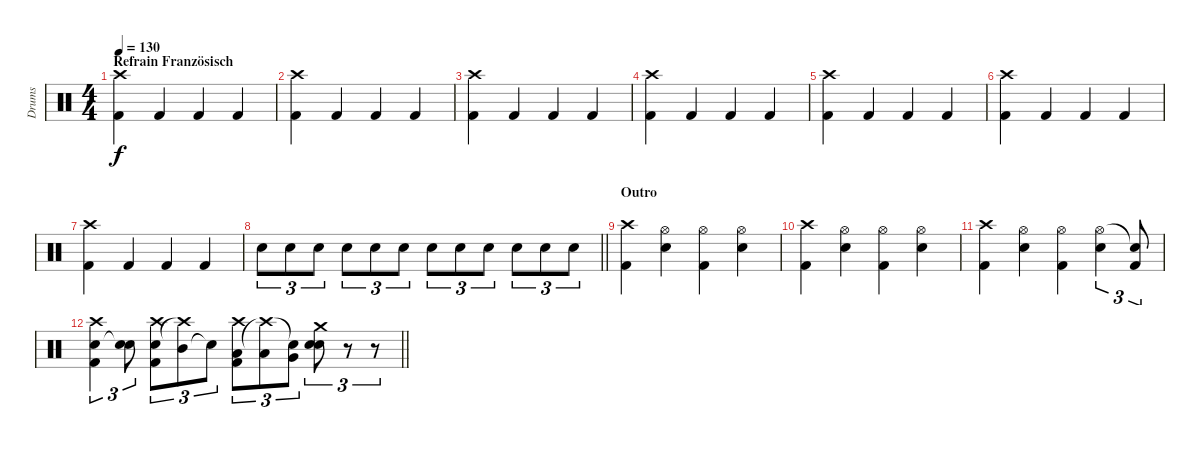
\track ("Drums" "Drums") {instrument percussion}
\staff {score}
\articulation defaults
\ts (4 4)
\section ("" "Refrain Französisch")
\tempo 130
\clef neutral
\ks c
("Crash high (hit)" "Kick (hit) 2").4{dy f} "Kick (hit) 2".4 "Kick (hit) 2".4 "Kick (hit) 2".4 |
("Crash high (hit)" "Kick (hit) 2").4 "Kick (hit) 2".4 "Kick (hit) 2".4 "Kick (hit) 2".4 |
("Crash high (hit)" "Kick (hit) 2").4 "Kick (hit) 2".4 "Kick (hit) 2".4 "Kick (hit) 2".4 |
("Crash high (hit)" "Kick (hit) 2").4 "Kick (hit) 2".4 "Kick (hit) 2".4 "Kick (hit) 2".4 |
("Crash high (hit)" "Kick (hit) 2").4 "Kick (hit) 2".4 "Kick (hit) 2".4 "Kick (hit) 2".4 |
("Crash high (hit)" "Kick (hit) 2").4 "Kick (hit) 2".4 "Kick (hit) 2".4 "Kick (hit) 2".4 |
("Crash high (hit)" "Kick (hit) 2").4 "Kick (hit) 2".4 "Kick (hit) 2".4 "Kick (hit) 2".4 |
\barLineRight lightlight "Snare (hit) 2".8{tu (3 2)} "Snare (hit) 2".8{tu (3 2)} "Snare (hit) 2".8{tu (3 2)} "Snare (hit) 2".8{tu (3 2)} "Snare (hit) 2".8{tu (3 2)} "Snare (hit) 2".8{tu (3 2)} "Snare (hit) 2".8{tu (3 2)} "Snare (hit) 2".8{tu (3 2)} "Snare (hit) 2".8{tu (3 2)} "Snare (hit) 2".8{tu (3 2)} "Snare (hit) 2".8{tu (3 2)} "Snare (hit) 2".8{tu (3 2)}
|
\section ("" "Outro")
("Kick (hit) 2" "Crash high (hit)").4 ("Snare (hit) 2" "Hi-Hat (open)").4 ("Kick (hit) 2" "Hi-Hat (open)").4 ("Snare (hit) 2" "Hi-Hat (open)").4 |
("Kick (hit) 2" "Crash high (hit)").4 ("Snare (hit) 2" "Hi-Hat (open)").4 ("Kick (hit) 2" "Hi-Hat (open)").4 ("Snare (hit) 2" "Hi-Hat (open)").4 |
("Kick (hit) 2" "Crash high (hit)").4 ("Snare (hit) 2" "Hi-Hat (open)").4 ("Kick (hit) 2" "Hi-Hat (open)").4 ("Snare (hit) 2" "Hi-Hat (open)").4{tu (3 2)} ("Kick (hit) 2" "Snare (hit)"{t}).8{tu (3 2)} |
\barLineRight lightlight
("Kick (hit) 2" "Electric Snare (hit)" "Crash high (hit)").4{tu (3 2)} ("Electric Snare (hit)" "Snare (hit)"{t}).8{tu (3 2)} ("Kick (hit) 2" "Electric Snare (hit)" "Crash high (hit)").8{tu (3 2)} ("Mid Tom (hit)" "Crash high (hit)"{t}).8{tu (3 2)} "Snare (hit)"{t}.8{tu (3 2)} ("Kick (hit) 2" "Low Tom (hit)" "Crash high (hit)").8{tu (3 2)} ("Low Tom (hit)" "Crash high (hit)"{t}).8{tu (3 2)} ("Very Low Tom (hit)" "Snare (hit)"{t}).8{tu (3 2)} ("Snare (hit) 2" "Electric Snare (hit)" "Crash medium (hit)").8{tu (3 2)} r.8{tu (3 2)} r.8{tu (3 2)}
